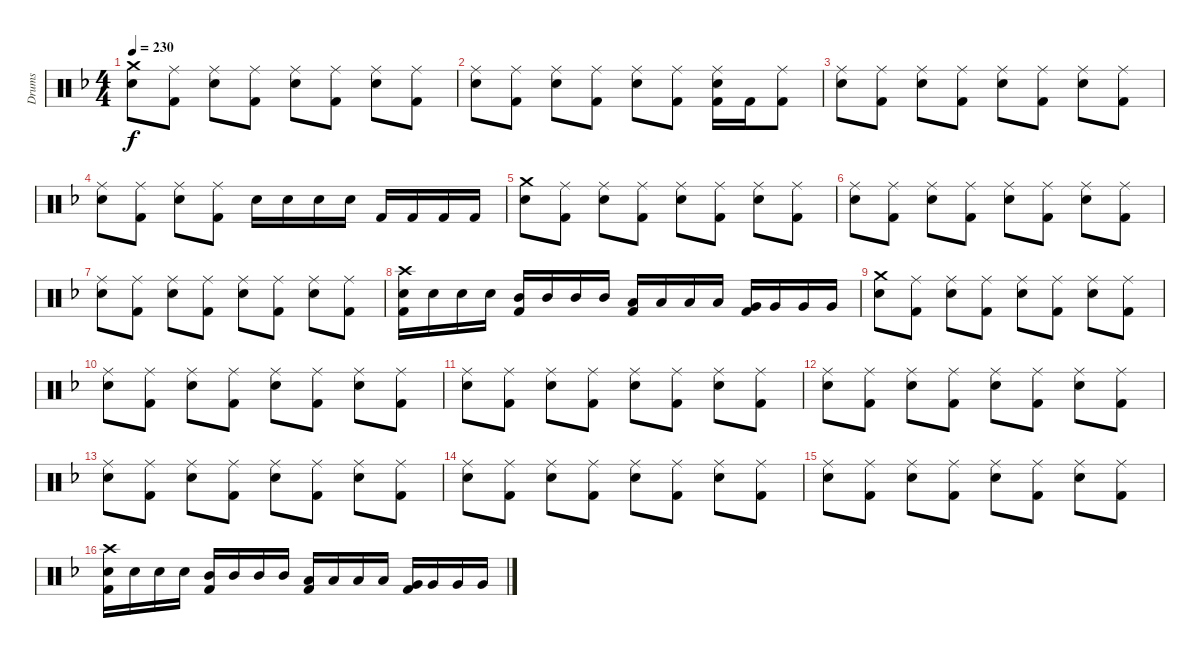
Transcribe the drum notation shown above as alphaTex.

\track ("Drums" "Drums") {instrument percussion}
\staff {score}
\articulation defaults
\ts (4 4)
\tempo 230
\clef neutral
\ks f
("Crash medium (hit)" "Snare (hit) 2").8{dy f} ("Ride (middle)" "Kick (hit) 2").8 ("Ride (middle)" "Snare (hit) 2").8 ("Ride (middle)" "Kick (hit) 2").8 ("Ride (middle)" "Snare (hit) 2").8 ("Ride (middle)" "Kick (hit) 2").8 ("Ride (middle)" "Snare (hit) 2").8 ("Ride (middle)" "Kick (hit) 2").8 |
("Ride (middle)" "Snare (hit) 2").8 ("Ride (middle)" "Kick (hit) 2").8 ("Ride (middle)" "Snare (hit) 2").8 ("Ride (middle)" "Kick (hit) 2").8 ("Ride (middle)" "Snare (hit) 2").8 ("Ride (middle)" "Kick (hit) 2").8 ("Ride (middle)" "Snare (hit) 2" "Kick (hit) 2").16 "Kick (hit) 2".16 ("Ride (middle)" "Kick (hit) 2").8 |
("Ride (middle)" "Snare (hit) 2").8 ("Ride (middle)" "Kick (hit) 2").8 ("Ride (middle)" "Snare (hit) 2").8 ("Ride (middle)" "Kick (hit) 2").8 ("Ride (middle)" "Snare (hit) 2").8 ("Ride (middle)" "Kick (hit) 2").8 ("Ride (middle)" "Snare (hit) 2").8 ("Ride (middle)" "Kick (hit) 2").8 |
("Ride (middle)" "Snare (hit) 2").8 ("Ride (middle)" "Kick (hit) 2").8 ("Ride (middle)" "Snare (hit) 2").8 ("Ride (middle)" "Kick (hit) 2").8 "Snare (hit) 2".16 "Snare (hit) 2".16 "Snare (hit) 2".16 "Snare (hit) 2".16 "Kick (hit) 2".16 "Kick (hit) 2".16 "Kick (hit) 2".16 "Kick (hit) 2".16 |
("Crash medium (hit)" "Snare (hit) 2").8 ("Ride (middle)" "Kick (hit) 2").8 ("Ride (middle)" "Snare (hit) 2").8 ("Ride (middle)" "Kick (hit) 2").8 ("Ride (middle)" "Snare (hit) 2").8 ("Ride (middle)" "Kick (hit) 2").8 ("Ride (middle)" "Snare (hit) 2").8 ("Ride (middle)" "Kick (hit) 2").8 |
("Ride (middle)" "Snare (hit) 2").8 ("Ride (middle)" "Kick (hit) 2").8 ("Ride (middle)" "Snare (hit) 2").8 ("Ride (middle)" "Kick (hit) 2").8 ("Ride (middle)" "Snare (hit) 2").8 ("Ride (middle)" "Kick (hit) 2").8 ("Ride (middle)" "Snare (hit) 2").8 ("Ride (middle)" "Kick (hit) 2").8 |
("Ride (middle)" "Snare (hit) 2").8 ("Ride (middle)" "Kick (hit) 2").8 ("Ride (middle)" "Snare (hit) 2").8 ("Ride (middle)" "Kick (hit) 2").8 ("Ride (middle)" "Snare (hit) 2").8 ("Ride (middle)" "Kick (hit) 2").8 ("Ride (middle)" "Snare (hit) 2").8 ("Ride (middle)" "Kick (hit) 2").8 |
("Crash high (hit)" "Snare (hit) 2" "Kick (hit) 2").16 "Snare (hit) 2".16 "Snare (hit) 2".16 "Snare (hit) 2".16 ("Mid Tom (hit)" "Kick (hit) 2").16 "Mid Tom (hit)".16 "Mid Tom (hit)".16 "Mid Tom (hit)".16 ("Low Tom (hit)" "Kick (hit) 2").16 "Low Tom (hit)".16 "Low Tom (hit)".16 "Low Tom (hit)".16 ("Very Low Tom (hit)" "Kick (hit) 2").16 "Very Low Tom (hit)".16 "Very Low Tom (hit)".16 "Very Low Tom (hit)".16 |
("Crash medium (hit)" "Snare (hit) 2").8 ("Ride (middle)" "Kick (hit) 2").8 ("Ride (middle)" "Snare (hit) 2").8 ("Ride (middle)" "Kick (hit) 2").8 ("Ride (middle)" "Snare (hit) 2").8 ("Ride (middle)" "Kick (hit) 2").8 ("Ride (middle)" "Snare (hit) 2").8 ("Ride (middle)" "Kick (hit) 2").8 |
("Ride (middle)" "Snare (hit) 2").8 ("Ride (middle)" "Kick (hit) 2").8 ("Ride (middle)" "Snare (hit) 2").8 ("Ride (middle)" "Kick (hit) 2").8 ("Ride (middle)" "Snare (hit) 2").8 ("Ride (middle)" "Kick (hit) 2").8 ("Ride (middle)" "Snare (hit) 2").8 ("Ride (middle)" "Kick (hit) 2").8 |
("Ride (middle)" "Snare (hit) 2").8 ("Ride (middle)" "Kick (hit) 2").8 ("Ride (middle)" "Snare (hit) 2").8 ("Ride (middle)" "Kick (hit) 2").8 ("Ride (middle)" "Snare (hit) 2").8 ("Ride (middle)" "Kick (hit) 2").8 ("Ride (middle)" "Snare (hit) 2").8 ("Ride (middle)" "Kick (hit) 2").8 |
("Ride (middle)" "Snare (hit) 2").8 ("Ride (middle)" "Kick (hit) 2").8 ("Ride (middle)" "Snare (hit) 2").8 ("Ride (middle)" "Kick (hit) 2").8 ("Ride (middle)" "Snare (hit) 2").8 ("Ride (middle)" "Kick (hit) 2").8 ("Ride (middle)" "Snare (hit) 2").8 ("Ride (middle)" "Kick (hit) 2").8 |
("Ride (middle)" "Snare (hit) 2").8 ("Ride (middle)" "Kick (hit) 2").8 ("Ride (middle)" "Snare (hit) 2").8 ("Ride (middle)" "Kick (hit) 2").8 ("Ride (middle)" "Snare (hit) 2").8 ("Ride (middle)" "Kick (hit) 2").8 ("Ride (middle)" "Snare (hit) 2").8 ("Ride (middle)" "Kick (hit) 2").8 |
("Ride (middle)" "Snare (hit) 2").8 ("Ride (middle)" "Kick (hit) 2").8 ("Ride (middle)" "Snare (hit) 2").8 ("Ride (middle)" "Kick (hit) 2").8 ("Ride (middle)" "Snare (hit) 2").8 ("Ride (middle)" "Kick (hit) 2").8 ("Ride (middle)" "Snare (hit) 2").8 ("Ride (middle)" "Kick (hit) 2").8 |
("Ride (middle)" "Snare (hit) 2").8 ("Ride (middle)" "Kick (hit) 2").8 ("Ride (middle)" "Snare (hit) 2").8 ("Ride (middle)" "Kick (hit) 2").8 ("Ride (middle)" "Snare (hit) 2").8 ("Ride (middle)" "Kick (hit) 2").8 ("Ride (middle)" "Snare (hit) 2").8 ("Ride (middle)" "Kick (hit) 2").8 |
("Crash high (hit)" "Snare (hit) 2" "Kick (hit) 2").16 "Snare (hit) 2".16 "Snare (hit) 2".16 "Snare (hit) 2".16 ("Mid Tom (hit)" "Kick (hit) 2").16 "Mid Tom (hit)".16 "Mid Tom (hit)".16 "Mid Tom (hit)".16 ("Low Tom (hit)" "Kick (hit) 2").16 "Low Tom (hit)".16 "Low Tom (hit)".16 "Low Tom (hit)".16 ("Very Low Tom (hit)" "Kick (hit) 2").16 "Very Low Tom (hit)".16 "Very Low Tom (hit)".16 "Very Low Tom (hit)".16
